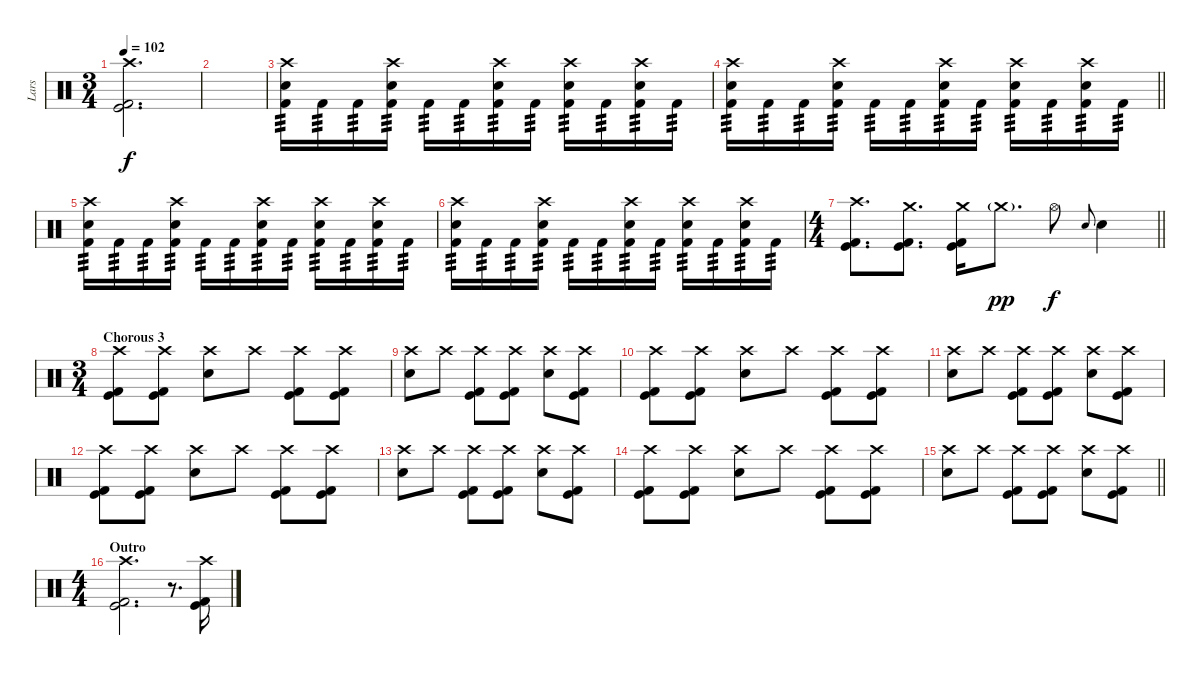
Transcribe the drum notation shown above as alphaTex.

\track ("Lars" "Lars") {instrument percussion}
\staff {score}
\articulation defaults
\ts (3 4)
\tempo 102
\clef neutral
\ks c
("Crash high (hit)" "Kick (hit)" "Kick (hit) 2").2{d dy f} |
|
("Crash high (hit)" "Electric Snare (hit)" "Kick (hit) 2").16{tp 3} "Kick (hit) 2".16{tp 3} "Kick (hit) 2".16{tp 3} ("Crash high (hit)" "Electric Snare (hit)" "Kick (hit) 2").16{tp 3} "Kick (hit) 2".16{tp 3} "Kick (hit) 2".16{tp 3} ("Crash high (hit)" "Electric Snare (hit)" "Kick (hit) 2").16{tp 3} "Kick (hit) 2".16{tp 3} ("Crash high (hit)" "Electric Snare (hit)" "Kick (hit) 2").16{tp 3} "Kick (hit) 2".16{tp 3} ("Crash high (hit)" "Electric Snare (hit)" "Kick (hit) 2").16{tp 3} "Kick (hit) 2".16{tp 3} |
\barLineRight lightlight
("Crash high (hit)" "Electric Snare (hit)" "Kick (hit) 2").16{tp 3} "Kick (hit) 2".16{tp 3} "Kick (hit) 2".16{tp 3} ("Crash high (hit)" "Electric Snare (hit)" "Kick (hit) 2").16{tp 3} "Kick (hit) 2".16{tp 3} "Kick (hit) 2".16{tp 3} ("Crash high (hit)" "Electric Snare (hit)" "Kick (hit) 2").16{tp 3} "Kick (hit) 2".16{tp 3} ("Crash high (hit)" "Electric Snare (hit)" "Kick (hit) 2").16{tp 3} "Kick (hit) 2".16{tp 3} ("Crash high (hit)" "Electric Snare (hit)" "Kick (hit) 2").16{tp 3} "Kick (hit) 2".16{tp 3} |
\section ("" "")
("Crash high (hit)" "Electric Snare (hit)" "Kick (hit) 2").16{tp 3} "Kick (hit) 2".16{tp 3} "Kick (hit) 2".16{tp 3} ("Crash high (hit)" "Electric Snare (hit)" "Kick (hit) 2").16{tp 3} "Kick (hit) 2".16{tp 3} "Kick (hit) 2".16{tp 3} ("Crash high (hit)" "Electric Snare (hit)" "Kick (hit) 2").16{tp 3} "Kick (hit) 2".16{tp 3} ("Crash high (hit)" "Electric Snare (hit)" "Kick (hit) 2").16{tp 3} "Kick (hit) 2".16{tp 3} ("Crash high (hit)" "Electric Snare (hit)" "Kick (hit) 2").16{tp 3} "Kick (hit) 2".16{tp 3} |
("Crash high (hit)" "Electric Snare (hit)" "Kick (hit) 2").16{tp 3} "Kick (hit) 2".16{tp 3} "Kick (hit) 2".16{tp 3} ("Crash high (hit)" "Electric Snare (hit)" "Kick (hit) 2").16{tp 3} "Kick (hit) 2".16{tp 3} "Kick (hit) 2".16{tp 3} ("Crash high (hit)" "Electric Snare (hit)" "Kick (hit) 2").16{tp 3} "Kick (hit) 2".16{tp 3} ("Crash high (hit)" "Electric Snare (hit)" "Kick (hit) 2").16{tp 3} "Kick (hit) 2".16{tp 3} ("Crash high (hit)" "Electric Snare (hit)" "Kick (hit) 2").16{tp 3} "Kick (hit) 2".16{tp 3} |
\ts (4 4)
\barLineRight lightlight
("Crash high (hit)" "Kick (hit)" "Kick (hit) 2").8{d} ("Crash medium (hit)" "Kick (hit)" "Kick (hit) 2").8{d} ("Crash medium (hit)" "Kick (hit)" "Kick (hit) 2").16 "Crash medium (hit)"{g}.8{d dy pp} "Hi-Hat (open)".8{dy f} "Electric Snare (hit)".8{gr onbeat} "Electric Snare (hit)".4 |
\ts (3 4)
\section ("" "Chorous 3")
("Crash high (hit)" "Kick (hit)" "Kick (hit) 2").8 ("Crash high (hit)" "Kick (hit)" "Kick (hit) 2").8 ("Crash high (hit)" "Electric Snare (hit)").8 "Crash high (hit)".8 ("Crash high (hit)" "Kick (hit)" "Kick (hit) 2").8 ("Crash high (hit)" "Kick (hit)" "Kick (hit) 2").8 |
("Crash high (hit)" "Electric Snare (hit)").8 "Crash high (hit)".8 ("Crash high (hit)" "Kick (hit)" "Kick (hit) 2").8 ("Crash high (hit)" "Kick (hit)" "Kick (hit) 2").8 ("Crash high (hit)" "Electric Snare (hit)").8 ("Crash high (hit)" "Kick (hit)" "Kick (hit) 2").8 |
("Crash high (hit)" "Kick (hit)" "Kick (hit) 2").8 ("Crash high (hit)" "Kick (hit)" "Kick (hit) 2").8 ("Crash high (hit)" "Electric Snare (hit)").8 "Crash high (hit)".8 ("Crash high (hit)" "Kick (hit)" "Kick (hit) 2").8 ("Crash high (hit)" "Kick (hit)" "Kick (hit) 2").8 |
("Crash high (hit)" "Electric Snare (hit)").8 "Crash high (hit)".8 ("Crash high (hit)" "Kick (hit)" "Kick (hit) 2").8 ("Crash high (hit)" "Kick (hit)" "Kick (hit) 2").8 ("Crash high (hit)" "Electric Snare (hit)").8 ("Crash high (hit)" "Kick (hit)" "Kick (hit) 2").8 |
("Crash high (hit)" "Kick (hit)" "Kick (hit) 2").8 ("Crash high (hit)" "Kick (hit)" "Kick (hit) 2").8 ("Crash high (hit)" "Electric Snare (hit)").8 "Crash high (hit)".8 ("Crash high (hit)" "Kick (hit)" "Kick (hit) 2").8 ("Crash high (hit)" "Kick (hit)" "Kick (hit) 2").8 |
("Crash high (hit)" "Electric Snare (hit)").8 "Crash high (hit)".8 ("Crash high (hit)" "Kick (hit)" "Kick (hit) 2").8 ("Crash high (hit)" "Kick (hit)" "Kick (hit) 2").8 ("Crash high (hit)" "Electric Snare (hit)").8 ("Crash high (hit)" "Kick (hit)" "Kick (hit) 2").8 |
("Crash high (hit)" "Kick (hit)" "Kick (hit) 2").8 ("Crash high (hit)" "Kick (hit)" "Kick (hit) 2").8 ("Crash high (hit)" "Electric Snare (hit)").8 "Crash high (hit)".8 ("Crash high (hit)" "Kick (hit)" "Kick (hit) 2").8 ("Crash high (hit)" "Kick (hit)" "Kick (hit) 2").8 |
\barLineRight lightlight
("Crash high (hit)" "Electric Snare (hit)").8 "Crash high (hit)".8 ("Crash high (hit)" "Kick (hit)" "Kick (hit) 2").8 ("Crash high (hit)" "Kick (hit)" "Kick (hit) 2").8 ("Crash high (hit)" "Electric Snare (hit)").8 ("Crash high (hit)" "Kick (hit)" "Kick (hit) 2").8 |
\ts (4 4)
\section ("" "Outro")
("Crash high (hit)" "Kick (hit)" "Kick (hit) 2").2{d} r.8{d} ("Crash high (hit)" "Kick (hit)" "Kick (hit) 2").16
